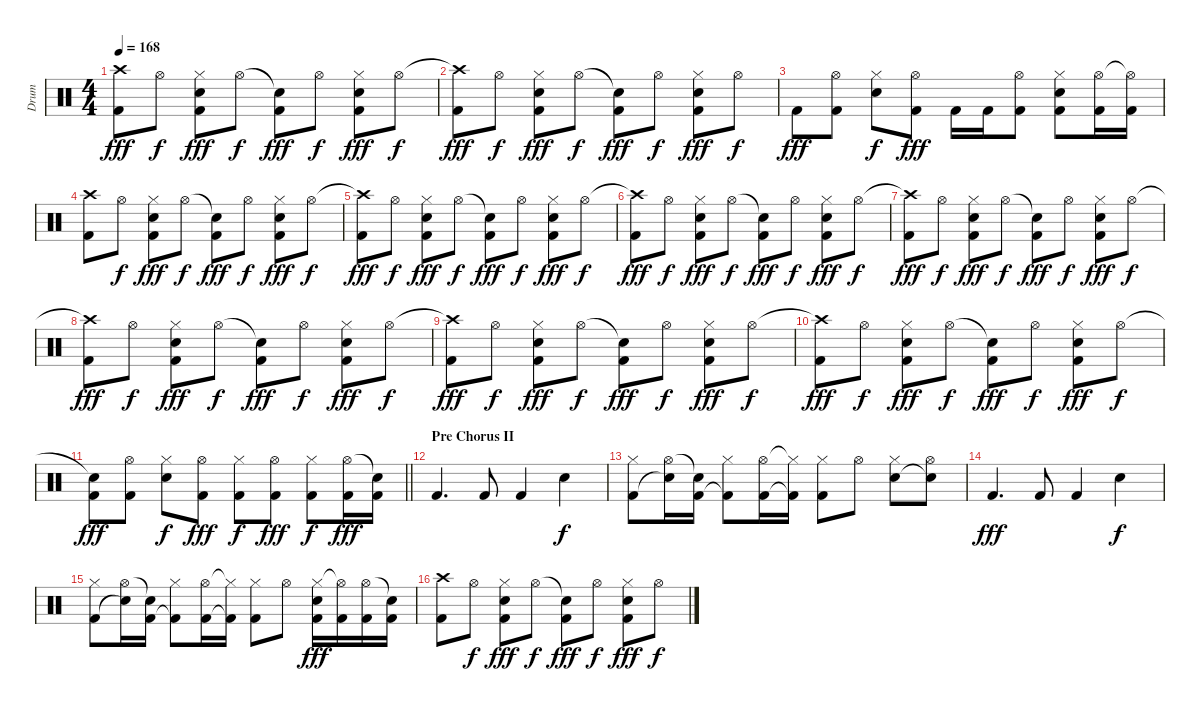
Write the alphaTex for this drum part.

\track ("Drum" "Drum") {instrument percussion}
\staff {score}
\articulation defaults
\ts (4 4)
\tempo 168
\clef neutral
\ks c
("Crash high (hit)"{t} "Kick (hit) 2").8{dy fff} "Hi-Hat (open)".8{dy f} ("Hi-Hat (closed)" "Snare (hit) 2" "Kick (hit) 2").8{dy fff} "Hi-Hat (open)".8{dy f} ("Snare (hit)"{t} "Kick (hit) 2").8{dy fff} "Hi-Hat (open)".8{dy f} ("Hi-Hat (closed)" "Snare (hit) 2" "Kick (hit) 2").8{dy fff} "Hi-Hat (open)".8{dy f} |
("Crash high (hit)"{t} "Kick (hit) 2").8{dy fff} "Hi-Hat (open)".8{dy f} ("Hi-Hat (closed)" "Snare (hit) 2" "Kick (hit) 2").8{dy fff} "Hi-Hat (open)".8{dy f} ("Snare (hit)"{t} "Kick (hit) 2").8{dy fff} "Hi-Hat (open)".8{dy f} ("Hi-Hat (closed)" "Snare (hit) 2" "Kick (hit) 2").8{dy fff} "Hi-Hat (open)".8{dy f} |
"Kick (hit) 2".8{dy fff} ("Hi-Hat (open)" "Kick (hit) 2").8 ("Hi-Hat (closed)" "Snare (hit) 2").8{dy f} ("Hi-Hat (open)" "Kick (hit) 2").8{dy fff} "Kick (hit) 2".16 "Kick (hit) 2".16 ("Hi-Hat (open)" "Kick (hit) 2").8 ("Hi-Hat (closed)" "Snare (hit) 2" "Kick (hit) 2").8 ("Hi-Hat (open)" "Kick (hit) 2").16 ("Hi-Hat (open)"{t} "Kick (hit) 2").16 |
("Crash high (hit)" "Kick (hit) 2").8 "Hi-Hat (open)".8{dy f} ("Hi-Hat (closed)" "Snare (hit) 2" "Kick (hit) 2").8{dy fff} "Hi-Hat (open)".8{dy f} ("Snare (hit)"{t} "Kick (hit) 2").8{dy fff} "Hi-Hat (open)".8{dy f} ("Hi-Hat (closed)" "Snare (hit) 2" "Kick (hit) 2").8{dy fff} "Hi-Hat (open)".8{dy f} |
("Crash high (hit)"{t} "Kick (hit) 2").8{dy fff} "Hi-Hat (open)".8{dy f} ("Hi-Hat (closed)" "Snare (hit) 2" "Kick (hit) 2").8{dy fff} "Hi-Hat (open)".8{dy f} ("Snare (hit)"{t} "Kick (hit) 2").8{dy fff} "Hi-Hat (open)".8{dy f} ("Hi-Hat (closed)" "Snare (hit) 2" "Kick (hit) 2").8{dy fff} "Hi-Hat (open)".8{dy f} |
("Crash high (hit)"{t} "Kick (hit) 2").8{dy fff} "Hi-Hat (open)".8{dy f} ("Hi-Hat (closed)" "Snare (hit) 2" "Kick (hit) 2").8{dy fff} "Hi-Hat (open)".8{dy f} ("Snare (hit)"{t} "Kick (hit) 2").8{dy fff} "Hi-Hat (open)".8{dy f} ("Hi-Hat (closed)" "Snare (hit) 2" "Kick (hit) 2").8{dy fff} "Hi-Hat (open)".8{dy f} |
("Crash high (hit)"{t} "Kick (hit) 2").8{dy fff} "Hi-Hat (open)".8{dy f} ("Hi-Hat (closed)" "Snare (hit) 2" "Kick (hit) 2").8{dy fff} "Hi-Hat (open)".8{dy f} ("Snare (hit)"{t} "Kick (hit) 2").8{dy fff} "Hi-Hat (open)".8{dy f} ("Hi-Hat (closed)" "Snare (hit) 2" "Kick (hit) 2").8{dy fff} "Hi-Hat (open)".8{dy f} |
("Crash high (hit)"{t} "Kick (hit) 2").8{dy fff} "Hi-Hat (open)".8{dy f} ("Hi-Hat (closed)" "Snare (hit) 2" "Kick (hit) 2").8{dy fff} "Hi-Hat (open)".8{dy f} ("Snare (hit)"{t} "Kick (hit) 2").8{dy fff} "Hi-Hat (open)".8{dy f} ("Hi-Hat (closed)" "Snare (hit) 2" "Kick (hit) 2").8{dy fff} "Hi-Hat (open)".8{dy f} |
("Crash high (hit)"{t} "Kick (hit) 2").8{dy fff} "Hi-Hat (open)".8{dy f} ("Hi-Hat (closed)" "Snare (hit) 2" "Kick (hit) 2").8{dy fff} "Hi-Hat (open)".8{dy f} ("Snare (hit)"{t} "Kick (hit) 2").8{dy fff} "Hi-Hat (open)".8{dy f} ("Hi-Hat (closed)" "Snare (hit) 2" "Kick (hit) 2").8{dy fff} "Hi-Hat (open)".8{dy f} |
("Crash high (hit)"{t} "Kick (hit) 2").8{dy fff} "Hi-Hat (open)".8{dy f} ("Hi-Hat (closed)" "Snare (hit) 2" "Kick (hit) 2").8{dy fff} "Hi-Hat (open)".8{dy f} ("Snare (hit)"{t} "Kick (hit) 2").8{dy fff} "Hi-Hat (open)".8{dy f} ("Hi-Hat (closed)" "Snare (hit) 2" "Kick (hit) 2").8{dy fff} "Hi-Hat (open)".8{dy f} |
\barLineRight lightlight
("Snare (hit)"{t} "Kick (hit) 2").8{dy fff} ("Hi-Hat (open)" "Kick (hit) 2").8 ("Hi-Hat (closed)" "Snare (hit) 2").8{dy f} ("Hi-Hat (open)" "Kick (hit) 2").8{dy fff} ("Hi-Hat (closed)" "Kick (hit) 2").8{dy f} ("Hi-Hat (open)" "Kick (hit) 2").8{dy fff} ("Hi-Hat (closed)" "Kick (hit) 2").8{dy f} ("Hi-Hat (open)" "Kick (hit) 2").16{dy fff} ("Snare (hit)"{t} "Kick (hit) 2").16 |
\section ("" "Pre Chorus II")
"Kick (hit) 2".4{d} "Kick (hit) 2".8 "Kick (hit) 2".4 "Snare (hit) 2".4{dy f} |
("Hi-Hat (closed)" "Kick (hit) 2").8 ("Hi-Hat (open)" "Snare (hit)"{t}).16 ("Snare (hit)"{t} "Kick (hit) 2").16 ("Hi-Hat (closed)" "Kick (hit) 2"{t}).8 ("Hi-Hat (open)" "Kick (hit) 2").16 ("Hi-Hat (closed)"{t} "Kick (hit) 2"{t}).16 ("Hi-Hat (closed)" "Kick (hit) 2").8 "Hi-Hat (open)".8 ("Hi-Hat (closed)" "Snare (hit) 2").8 ("Hi-Hat (open)" "Snare (hit)"{t}).8 |
"Kick (hit) 2".4{d dy fff} "Kick (hit) 2".8 "Kick (hit) 2".4 "Snare (hit) 2".4{dy f} |
("Hi-Hat (closed)" "Kick (hit) 2").8 ("Hi-Hat (open)" "Snare (hit)"{t}).16 ("Snare (hit)"{t} "Kick (hit) 2").16 ("Hi-Hat (closed)" "Kick (hit) 2"{t}).8 ("Hi-Hat (open)" "Kick (hit) 2").16 ("Hi-Hat (closed)"{t} "Kick (hit) 2"{t}).16 ("Hi-Hat (closed)" "Kick (hit) 2").8 "Hi-Hat (open)".8 ("Hi-Hat (closed)" "Snare (hit) 2" "Kick (hit) 2").16{dy fff} ("Hi-Hat (open)"{t} "Kick (hit) 2").16 ("Hi-Hat (open)" "Kick (hit) 2").16 ("Snare (hit)"{t} "Kick (hit) 2").16 |
("Crash high (hit)" "Kick (hit) 2").8 "Hi-Hat (open)".8{dy f} ("Hi-Hat (closed)" "Snare (hit) 2" "Kick (hit) 2").8{dy fff} "Hi-Hat (open)".8{dy f} ("Snare (hit)"{t} "Kick (hit) 2").8{dy fff} "Hi-Hat (open)".8{dy f} ("Hi-Hat (closed)" "Snare (hit) 2" "Kick (hit) 2").8{dy fff} "Hi-Hat (open)".8{dy f}
